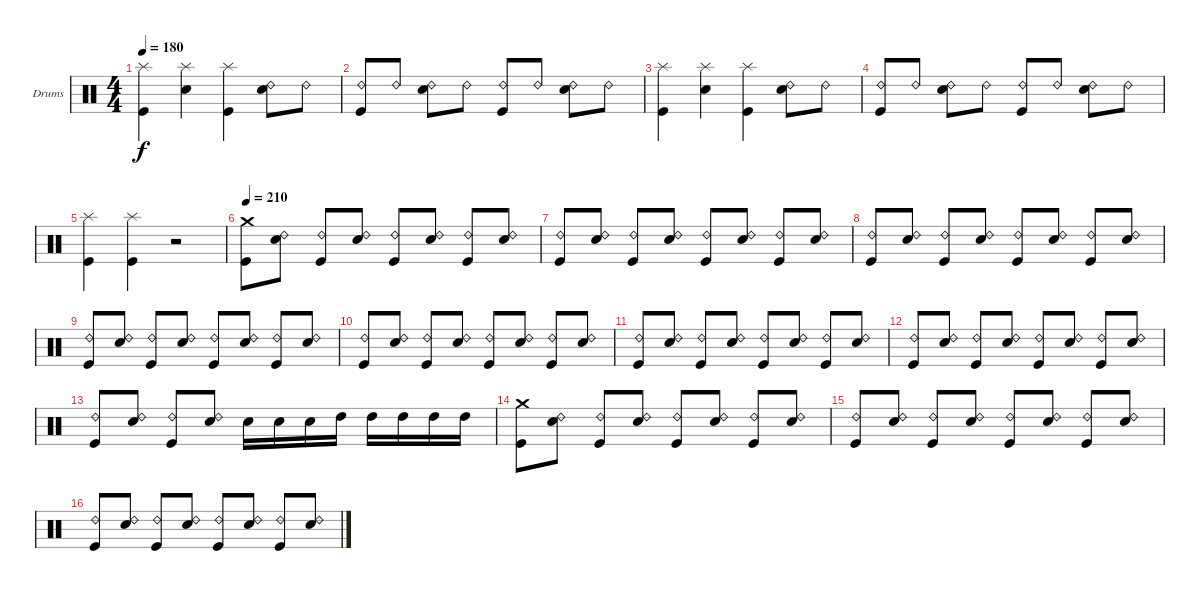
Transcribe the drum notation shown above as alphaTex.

\bracketExtendMode groupsimilarinstruments
\firstSystemTrackNameOrientation horizontal
\otherSystemsTrackNameOrientation horizontal
\track ("Dave Lombardo" "Drums") {instrument percussion}
\staff {score}
\articulation defaults
\ts (4 4)
\tempo 180
\clef neutral
\ks c
("Kick (hit)" "Splash (hit)").4{dy f} ("Snare (hit) 2" "Splash (hit)").4 ("Kick (hit)" "Splash (hit)").4 ("Snare (hit) 2" "Ride (bell) 2").8 "Ride (bell) 2".8 |
("Kick (hit)" "Ride (bell) 2").8 "Ride (bell) 2".8 ("Snare (hit) 2" "Ride (bell) 2").8 "Ride (bell) 2".8 ("Kick (hit)" "Ride (bell) 2").8 "Ride (bell) 2".8 ("Snare (hit) 2" "Ride (bell) 2").8 "Ride (bell) 2".8 |
("Kick (hit)" "Splash (hit)").4 ("Snare (hit) 2" "Splash (hit)").4 ("Kick (hit)" "Splash (hit)").4 ("Snare (hit) 2" "Ride (bell) 2").8 "Ride (bell) 2".8 |
("Kick (hit)" "Ride (bell) 2").8 "Ride (bell) 2".8 ("Snare (hit) 2" "Ride (bell) 2").8 "Ride (bell) 2".8 ("Kick (hit)" "Ride (bell) 2").8 "Ride (bell) 2".8 ("Snare (hit) 2" "Ride (bell) 2").8 "Ride (bell) 2".8 |
("Kick (hit)" "Splash (hit)").4 ("Kick (hit)" "Splash (hit)").4 r.2 |
\tempo 210
("Kick (hit)" "Crash medium (hit)").8 ("Snare (hit) 2" "Ride (bell) 2").8 ("Kick (hit)" "Ride (bell) 2").8 ("Snare (hit) 2" "Ride (bell) 2").8 ("Kick (hit)" "Ride (bell) 2").8 ("Snare (hit) 2" "Ride (bell) 2").8 ("Kick (hit)" "Ride (bell) 2").8 ("Snare (hit) 2" "Ride (bell) 2").8 |
("Kick (hit)" "Ride (bell) 2").8 ("Snare (hit) 2" "Ride (bell) 2").8 ("Kick (hit)" "Ride (bell) 2").8 ("Snare (hit) 2" "Ride (bell) 2").8 ("Kick (hit)" "Ride (bell) 2").8 ("Snare (hit) 2" "Ride (bell) 2").8 ("Kick (hit)" "Ride (bell) 2").8 ("Snare (hit) 2" "Ride (bell) 2").8 |
("Kick (hit)" "Ride (bell) 2").8 ("Snare (hit) 2" "Ride (bell) 2").8 ("Kick (hit)" "Ride (bell) 2").8 ("Snare (hit) 2" "Ride (bell) 2").8 ("Kick (hit)" "Ride (bell) 2").8 ("Snare (hit) 2" "Ride (bell) 2").8 ("Kick (hit)" "Ride (bell) 2").8 ("Snare (hit) 2" "Ride (bell) 2").8 |
("Kick (hit)" "Ride (bell) 2").8 ("Snare (hit) 2" "Ride (bell) 2").8 ("Kick (hit)" "Ride (bell) 2").8 ("Snare (hit) 2" "Ride (bell) 2").8 ("Kick (hit)" "Ride (bell) 2").8 ("Snare (hit) 2" "Ride (bell) 2").8 ("Kick (hit)" "Ride (bell) 2").8 ("Snare (hit) 2" "Ride (bell) 2").8 |
("Kick (hit)" "Ride (bell) 2").8 ("Snare (hit) 2" "Ride (bell) 2").8 ("Kick (hit)" "Ride (bell) 2").8 ("Snare (hit) 2" "Ride (bell) 2").8 ("Kick (hit)" "Ride (bell) 2").8 ("Snare (hit) 2" "Ride (bell) 2").8 ("Kick (hit)" "Ride (bell) 2").8 ("Snare (hit) 2" "Ride (bell) 2").8 |
("Kick (hit)" "Ride (bell) 2").8 ("Snare (hit) 2" "Ride (bell) 2").8 ("Kick (hit)" "Ride (bell) 2").8 ("Snare (hit) 2" "Ride (bell) 2").8 ("Kick (hit)" "Ride (bell) 2").8 ("Snare (hit) 2" "Ride (bell) 2").8 ("Kick (hit)" "Ride (bell) 2").8 ("Snare (hit) 2" "Ride (bell) 2").8 |
("Kick (hit)" "Ride (bell) 2").8 ("Snare (hit) 2" "Ride (bell) 2").8 ("Kick (hit)" "Ride (bell) 2").8 ("Snare (hit) 2" "Ride (bell) 2").8 ("Kick (hit)" "Ride (bell) 2").8 ("Snare (hit) 2" "Ride (bell) 2").8 ("Kick (hit)" "Ride (bell) 2").8 ("Snare (hit) 2" "Ride (bell) 2").8 |
("Kick (hit)" "Ride (bell) 2").8 ("Snare (hit) 2" "Ride (bell) 2").8 ("Kick (hit)" "Ride (bell) 2").8 ("Snare (hit) 2" "Ride (bell) 2").8 "Snare (hit) 2".16 "Snare (hit) 2".16 "Snare (hit) 2".16 "High Tom (hit)".16 "High Tom (hit)".16 "High Tom (hit)".16 "High Tom (hit)".16 "High Tom (hit)".16 |
("Kick (hit)" "Crash medium (hit)").8 ("Snare (hit) 2" "Ride (bell) 2").8 ("Kick (hit)" "Ride (bell) 2").8 ("Snare (hit) 2" "Ride (bell) 2").8 ("Kick (hit)" "Ride (bell) 2").8 ("Snare (hit) 2" "Ride (bell) 2").8 ("Kick (hit)" "Ride (bell) 2").8 ("Snare (hit) 2" "Ride (bell) 2").8 |
("Kick (hit)" "Ride (bell) 2").8 ("Snare (hit) 2" "Ride (bell) 2").8 ("Kick (hit)" "Ride (bell) 2").8 ("Snare (hit) 2" "Ride (bell) 2").8 ("Kick (hit)" "Ride (bell) 2").8 ("Snare (hit) 2" "Ride (bell) 2").8 ("Kick (hit)" "Ride (bell) 2").8 ("Snare (hit) 2" "Ride (bell) 2").8 |
("Kick (hit)" "Ride (bell) 2").8 ("Snare (hit) 2" "Ride (bell) 2").8 ("Kick (hit)" "Ride (bell) 2").8 ("Snare (hit) 2" "Ride (bell) 2").8 ("Kick (hit)" "Ride (bell) 2").8 ("Snare (hit) 2" "Ride (bell) 2").8 ("Kick (hit)" "Ride (bell) 2").8 ("Snare (hit) 2" "Ride (bell) 2").8
